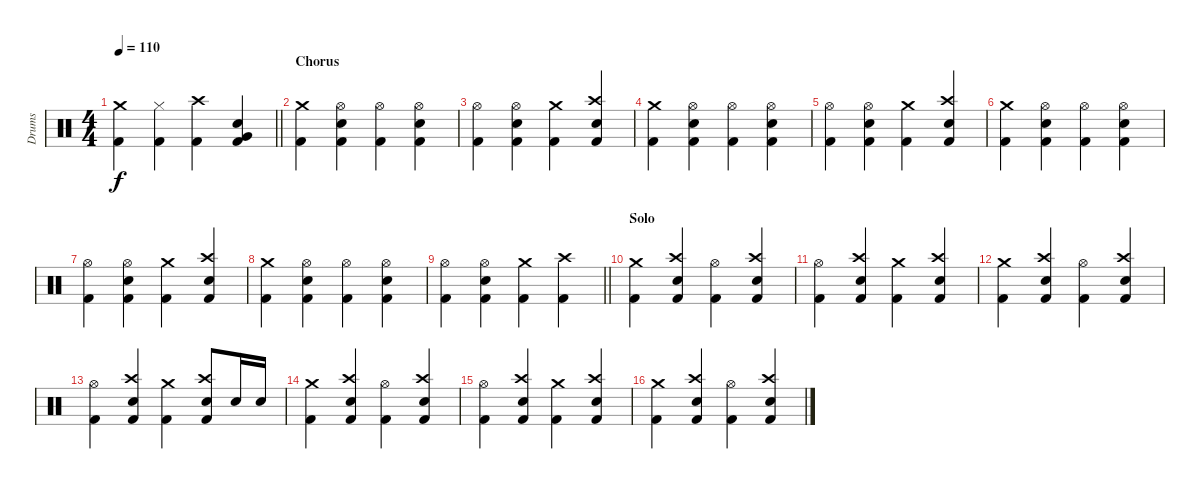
\track ("Drums" "Drums") {instrument percussion}
\staff {score}
\articulation defaults
\ts (4 4)
\tempo 110
\clef neutral
\barLineRight lightlight
\ks c
("Crash medium (hit)" "Kick (hit) 2").4{dy f} ("Hi-Hat (closed)" "Kick (hit) 2").4 ("Crash high (hit)" "Kick (hit) 2").4 ("Very Low Tom (hit)" "Electric Snare (hit)" "Kick (hit) 2").4 |
\section ("" "Chorus")
("Crash medium (hit)" "Kick (hit) 2").4 ("Hi-Hat (open)" "Electric Snare (hit)" "Kick (hit) 2").4 ("Hi-Hat (open)" "Kick (hit) 2").4 ("Hi-Hat (open)" "Electric Snare (hit)" "Kick (hit) 2").4 |
("Hi-Hat (open)" "Kick (hit) 2").4 ("Hi-Hat (open)" "Electric Snare (hit)" "Kick (hit) 2").4 ("Crash medium (hit)" "Kick (hit) 2").4 ("Crash high (hit)" "Electric Snare (hit)" "Kick (hit) 2").4 |
("Crash medium (hit)" "Kick (hit) 2").4 ("Hi-Hat (open)" "Electric Snare (hit)" "Kick (hit) 2").4 ("Hi-Hat (open)" "Kick (hit) 2").4 ("Hi-Hat (open)" "Electric Snare (hit)" "Kick (hit) 2").4 |
("Hi-Hat (open)" "Kick (hit) 2").4 ("Hi-Hat (open)" "Electric Snare (hit)" "Kick (hit) 2").4 ("Crash medium (hit)" "Kick (hit) 2").4 ("Crash high (hit)" "Electric Snare (hit)" "Kick (hit) 2").4 |
("Crash medium (hit)" "Kick (hit) 2").4 ("Hi-Hat (open)" "Electric Snare (hit)" "Kick (hit) 2").4 ("Hi-Hat (open)" "Kick (hit) 2").4 ("Hi-Hat (open)" "Electric Snare (hit)" "Kick (hit) 2").4 |
("Hi-Hat (open)" "Kick (hit) 2").4 ("Hi-Hat (open)" "Electric Snare (hit)" "Kick (hit) 2").4 ("Crash medium (hit)" "Kick (hit) 2").4 ("Crash high (hit)" "Electric Snare (hit)" "Kick (hit) 2").4 |
("Crash medium (hit)" "Kick (hit) 2").4 ("Hi-Hat (open)" "Electric Snare (hit)" "Kick (hit) 2").4 ("Hi-Hat (open)" "Kick (hit) 2").4 ("Hi-Hat (open)" "Electric Snare (hit)" "Kick (hit) 2").4 |
\barLineRight lightlight
("Hi-Hat (open)" "Kick (hit) 2").4 ("Hi-Hat (open)" "Electric Snare (hit)" "Kick (hit) 2").4 ("Crash medium (hit)" "Kick (hit) 2").4 ("Crash high (hit)" "Kick (hit) 2").4 |
\section ("" "Solo")
("Crash medium (hit)" "Kick (hit) 2").4 ("Crash high (hit)" "Electric Snare (hit)" "Kick (hit) 2").4 ("Hi-Hat (open)" "Kick (hit) 2").4 ("Crash high (hit)" "Electric Snare (hit)" "Kick (hit) 2").4 |
("Hi-Hat (open)" "Kick (hit) 2").4 ("Crash high (hit)" "Electric Snare (hit)" "Kick (hit) 2").4 ("Crash medium (hit)" "Kick (hit) 2").4 ("Crash high (hit)" "Electric Snare (hit)" "Kick (hit) 2").4 |
("Crash medium (hit)" "Kick (hit) 2").4 ("Crash high (hit)" "Electric Snare (hit)" "Kick (hit) 2").4 ("Hi-Hat (open)" "Kick (hit) 2").4 ("Crash high (hit)" "Electric Snare (hit)" "Kick (hit) 2").4 |
("Hi-Hat (open)" "Kick (hit) 2").4 ("Crash high (hit)" "Electric Snare (hit)" "Kick (hit) 2").4 ("Crash medium (hit)" "Kick (hit) 2").4 ("Crash high (hit)" "Electric Snare (hit)" "Kick (hit) 2").8 "Electric Snare (hit)".16 "Electric Snare (hit)".16 |
("Crash medium (hit)" "Kick (hit) 2").4 ("Crash high (hit)" "Electric Snare (hit)" "Kick (hit) 2").4 ("Hi-Hat (open)" "Kick (hit) 2").4 ("Crash high (hit)" "Electric Snare (hit)" "Kick (hit) 2").4 |
("Hi-Hat (open)" "Kick (hit) 2").4 ("Crash high (hit)" "Electric Snare (hit)" "Kick (hit) 2").4 ("Crash medium (hit)" "Kick (hit) 2").4 ("Crash high (hit)" "Electric Snare (hit)" "Kick (hit) 2").4 |
("Crash medium (hit)" "Kick (hit) 2").4 ("Crash high (hit)" "Electric Snare (hit)" "Kick (hit) 2").4 ("Hi-Hat (open)" "Kick (hit) 2").4 ("Crash high (hit)" "Electric Snare (hit)" "Kick (hit) 2").4
